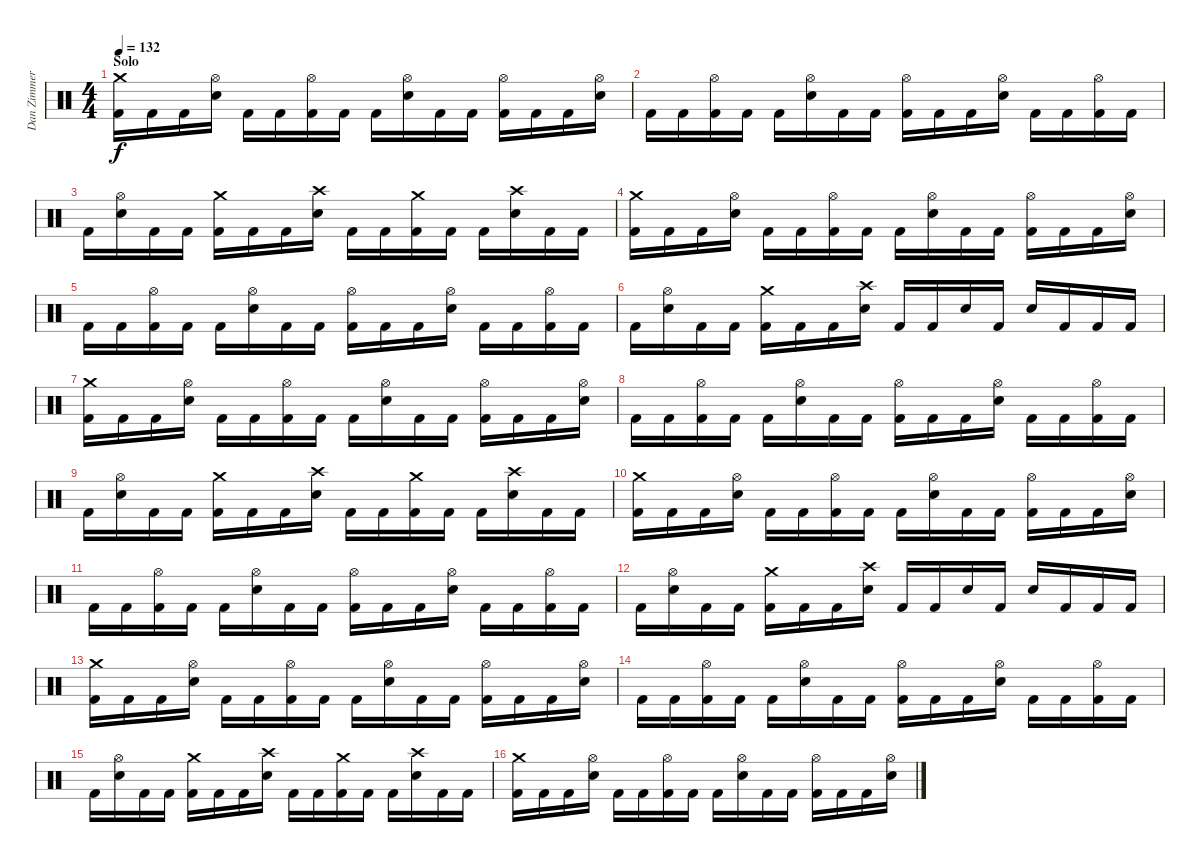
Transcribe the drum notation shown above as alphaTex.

\track ("Dan Zimmermann" "Dan Zimmer") {instrument percussion}
\staff {score}
\articulation defaults
\ts (4 4)
\section ("" "Solo")
\tempo 132
\clef neutral
\ks c
("Crash medium (hit)" "Kick (hit) 2").16{dy f} "Kick (hit) 2".16 "Kick (hit) 2".16 ("Hi-Hat (open)" "Electric Snare (hit)").16 "Kick (hit) 2".16 "Kick (hit) 2".16 ("Hi-Hat (open)" "Kick (hit) 2").16 "Kick (hit) 2".16 "Kick (hit) 2".16 ("Hi-Hat (open)" "Electric Snare (hit)").16 "Kick (hit) 2".16 "Kick (hit) 2".16 ("Hi-Hat (open)" "Kick (hit) 2").16 "Kick (hit) 2".16 "Kick (hit) 2".16 ("Hi-Hat (open)" "Electric Snare (hit)").16 |
"Kick (hit) 2".16 "Kick (hit) 2".16 ("Hi-Hat (open)" "Kick (hit) 2").16 "Kick (hit) 2".16 "Kick (hit) 2".16 ("Hi-Hat (open)" "Electric Snare (hit)").16 "Kick (hit) 2".16 "Kick (hit) 2".16 ("Hi-Hat (open)" "Kick (hit) 2").16 "Kick (hit) 2".16 "Kick (hit) 2".16 ("Hi-Hat (open)" "Electric Snare (hit)").16 "Kick (hit) 2".16 "Kick (hit) 2".16 ("Hi-Hat (open)" "Kick (hit) 2").16 "Kick (hit) 2".16 |
"Kick (hit) 2".16 ("Hi-Hat (open)" "Electric Snare (hit)").16 "Kick (hit) 2".16 "Kick (hit) 2".16 ("Crash medium (hit)" "Kick (hit) 2").16 "Kick (hit) 2".16 "Kick (hit) 2".16 ("Crash high (hit)" "Electric Snare (hit)").16 "Kick (hit) 2".16 "Kick (hit) 2".16 ("Crash medium (hit)" "Kick (hit) 2").16 "Kick (hit) 2".16 "Kick (hit) 2".16 ("Crash high (hit)" "Electric Snare (hit)").16 "Kick (hit) 2".16 "Kick (hit) 2".16 |
("Crash medium (hit)" "Kick (hit) 2").16 "Kick (hit) 2".16 "Kick (hit) 2".16 ("Hi-Hat (open)" "Electric Snare (hit)").16 "Kick (hit) 2".16 "Kick (hit) 2".16 ("Hi-Hat (open)" "Kick (hit) 2").16 "Kick (hit) 2".16 "Kick (hit) 2".16 ("Hi-Hat (open)" "Electric Snare (hit)").16 "Kick (hit) 2".16 "Kick (hit) 2".16 ("Hi-Hat (open)" "Kick (hit) 2").16 "Kick (hit) 2".16 "Kick (hit) 2".16 ("Hi-Hat (open)" "Electric Snare (hit)").16 |
"Kick (hit) 2".16 "Kick (hit) 2".16 ("Hi-Hat (open)" "Kick (hit) 2").16 "Kick (hit) 2".16 "Kick (hit) 2".16 ("Hi-Hat (open)" "Electric Snare (hit)").16 "Kick (hit) 2".16 "Kick (hit) 2".16 ("Hi-Hat (open)" "Kick (hit) 2").16 "Kick (hit) 2".16 "Kick (hit) 2".16 ("Hi-Hat (open)" "Electric Snare (hit)").16 "Kick (hit) 2".16 "Kick (hit) 2".16 ("Hi-Hat (open)" "Kick (hit) 2").16 "Kick (hit) 2".16 |
"Kick (hit) 2".16 ("Hi-Hat (open)" "Electric Snare (hit)").16 "Kick (hit) 2".16 "Kick (hit) 2".16 ("Crash medium (hit)" "Kick (hit) 2").16 "Kick (hit) 2".16 "Kick (hit) 2".16 ("Crash high (hit)" "Electric Snare (hit)").16 "Kick (hit) 2".16 "Kick (hit) 2".16 "Electric Snare (hit)".16 "Kick (hit) 2".16 "Electric Snare (hit)".16 "Kick (hit) 2".16 "Kick (hit) 2".16 "Kick (hit) 2".16 |
("Crash medium (hit)" "Kick (hit) 2").16 "Kick (hit) 2".16 "Kick (hit) 2".16 ("Hi-Hat (open)" "Electric Snare (hit)").16 "Kick (hit) 2".16 "Kick (hit) 2".16 ("Hi-Hat (open)" "Kick (hit) 2").16 "Kick (hit) 2".16 "Kick (hit) 2".16 ("Hi-Hat (open)" "Electric Snare (hit)").16 "Kick (hit) 2".16 "Kick (hit) 2".16 ("Hi-Hat (open)" "Kick (hit) 2").16 "Kick (hit) 2".16 "Kick (hit) 2".16 ("Hi-Hat (open)" "Electric Snare (hit)").16 |
"Kick (hit) 2".16 "Kick (hit) 2".16 ("Hi-Hat (open)" "Kick (hit) 2").16 "Kick (hit) 2".16 "Kick (hit) 2".16 ("Hi-Hat (open)" "Electric Snare (hit)").16 "Kick (hit) 2".16 "Kick (hit) 2".16 ("Hi-Hat (open)" "Kick (hit) 2").16 "Kick (hit) 2".16 "Kick (hit) 2".16 ("Hi-Hat (open)" "Electric Snare (hit)").16 "Kick (hit) 2".16 "Kick (hit) 2".16 ("Hi-Hat (open)" "Kick (hit) 2").16 "Kick (hit) 2".16 |
"Kick (hit) 2".16 ("Hi-Hat (open)" "Electric Snare (hit)").16 "Kick (hit) 2".16 "Kick (hit) 2".16 ("Crash medium (hit)" "Kick (hit) 2").16 "Kick (hit) 2".16 "Kick (hit) 2".16 ("Crash high (hit)" "Electric Snare (hit)").16 "Kick (hit) 2".16 "Kick (hit) 2".16 ("Crash medium (hit)" "Kick (hit) 2").16 "Kick (hit) 2".16 "Kick (hit) 2".16 ("Crash high (hit)" "Electric Snare (hit)").16 "Kick (hit) 2".16 "Kick (hit) 2".16 |
("Crash medium (hit)" "Kick (hit) 2").16 "Kick (hit) 2".16 "Kick (hit) 2".16 ("Hi-Hat (open)" "Electric Snare (hit)").16 "Kick (hit) 2".16 "Kick (hit) 2".16 ("Hi-Hat (open)" "Kick (hit) 2").16 "Kick (hit) 2".16 "Kick (hit) 2".16 ("Hi-Hat (open)" "Electric Snare (hit)").16 "Kick (hit) 2".16 "Kick (hit) 2".16 ("Hi-Hat (open)" "Kick (hit) 2").16 "Kick (hit) 2".16 "Kick (hit) 2".16 ("Hi-Hat (open)" "Electric Snare (hit)").16 |
"Kick (hit) 2".16 "Kick (hit) 2".16 ("Hi-Hat (open)" "Kick (hit) 2").16 "Kick (hit) 2".16 "Kick (hit) 2".16 ("Hi-Hat (open)" "Electric Snare (hit)").16 "Kick (hit) 2".16 "Kick (hit) 2".16 ("Hi-Hat (open)" "Kick (hit) 2").16 "Kick (hit) 2".16 "Kick (hit) 2".16 ("Hi-Hat (open)" "Electric Snare (hit)").16 "Kick (hit) 2".16 "Kick (hit) 2".16 ("Hi-Hat (open)" "Kick (hit) 2").16 "Kick (hit) 2".16 |
"Kick (hit) 2".16 ("Hi-Hat (open)" "Electric Snare (hit)").16 "Kick (hit) 2".16 "Kick (hit) 2".16 ("Crash medium (hit)" "Kick (hit) 2").16 "Kick (hit) 2".16 "Kick (hit) 2".16 ("Crash high (hit)" "Electric Snare (hit)").16 "Kick (hit) 2".16 "Kick (hit) 2".16 "Electric Snare (hit)".16 "Kick (hit) 2".16 "Electric Snare (hit)".16 "Kick (hit) 2".16 "Kick (hit) 2".16 "Kick (hit) 2".16 |
("Crash medium (hit)" "Kick (hit) 2").16 "Kick (hit) 2".16 "Kick (hit) 2".16 ("Hi-Hat (open)" "Electric Snare (hit)").16 "Kick (hit) 2".16 "Kick (hit) 2".16 ("Hi-Hat (open)" "Kick (hit) 2").16 "Kick (hit) 2".16 "Kick (hit) 2".16 ("Hi-Hat (open)" "Electric Snare (hit)").16 "Kick (hit) 2".16 "Kick (hit) 2".16 ("Hi-Hat (open)" "Kick (hit) 2").16 "Kick (hit) 2".16 "Kick (hit) 2".16 ("Hi-Hat (open)" "Electric Snare (hit)").16 |
"Kick (hit) 2".16 "Kick (hit) 2".16 ("Hi-Hat (open)" "Kick (hit) 2").16 "Kick (hit) 2".16 "Kick (hit) 2".16 ("Hi-Hat (open)" "Electric Snare (hit)").16 "Kick (hit) 2".16 "Kick (hit) 2".16 ("Hi-Hat (open)" "Kick (hit) 2").16 "Kick (hit) 2".16 "Kick (hit) 2".16 ("Hi-Hat (open)" "Electric Snare (hit)").16 "Kick (hit) 2".16 "Kick (hit) 2".16 ("Hi-Hat (open)" "Kick (hit) 2").16 "Kick (hit) 2".16 |
"Kick (hit) 2".16 ("Hi-Hat (open)" "Electric Snare (hit)").16 "Kick (hit) 2".16 "Kick (hit) 2".16 ("Crash medium (hit)" "Kick (hit) 2").16 "Kick (hit) 2".16 "Kick (hit) 2".16 ("Crash high (hit)" "Electric Snare (hit)").16 "Kick (hit) 2".16 "Kick (hit) 2".16 ("Crash medium (hit)" "Kick (hit) 2").16 "Kick (hit) 2".16 "Kick (hit) 2".16 ("Crash high (hit)" "Electric Snare (hit)").16 "Kick (hit) 2".16 "Kick (hit) 2".16 |
("Crash medium (hit)" "Kick (hit) 2").16 "Kick (hit) 2".16 "Kick (hit) 2".16 ("Hi-Hat (open)" "Electric Snare (hit)").16 "Kick (hit) 2".16 "Kick (hit) 2".16 ("Hi-Hat (open)" "Kick (hit) 2").16 "Kick (hit) 2".16 "Kick (hit) 2".16 ("Hi-Hat (open)" "Electric Snare (hit)").16 "Kick (hit) 2".16 "Kick (hit) 2".16 ("Hi-Hat (open)" "Kick (hit) 2").16 "Kick (hit) 2".16 "Kick (hit) 2".16 ("Hi-Hat (open)" "Electric Snare (hit)").16
